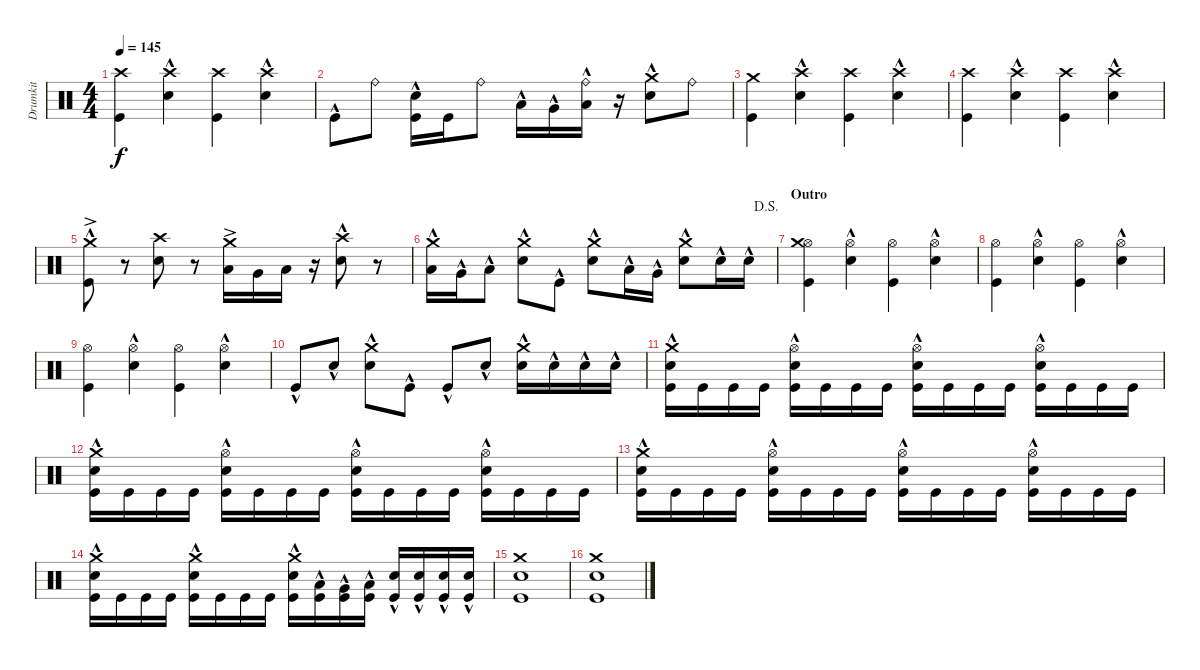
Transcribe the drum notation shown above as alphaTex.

\track ("Drumkit" "Drumkit") {instrument percussion}
\staff {score}
\articulation defaults
\ts (4 4)
\tempo 145
\clef neutral
\ks c
("Kick (hit)" "Crash high (hit)").4{dy f} ("Snare (hit) 2"{hac} "Crash high (hit)").4 ("Kick (hit)" "Crash high (hit)").4 ("Snare (hit) 2"{hac} "Crash high (hit)").4 |
"Kick (hit)"{hac}.8 "Ride (bell)".8 ("Kick (hit)" "Snare (hit) 2"{hac}).16 "Kick (hit)".16 "Ride (bell)".8 "Low Tom (hit)"{hac}.16 "Very Low Tom (hit)"{hac}.16 ("Low Floor Tom (hit)"{hac} "Ride (bell)"{hac}).16 r.16 ("Snare (hit) 2"{hac} "Crash medium (hit)").8 "Ride (bell)".8 |
("Kick (hit)" "Crash medium (hit)").4 ("Snare (hit) 2"{hac} "Crash high (hit)").4 ("Kick (hit)" "Crash high (hit)").4 ("Snare (hit) 2"{hac} "Crash high (hit)").4 |
("Kick (hit)" "Crash high (hit)").4 ("Snare (hit) 2"{hac} "Crash high (hit)").4 ("Kick (hit)" "Crash high (hit)").4 ("Snare (hit) 2"{hac} "Crash high (hit)").4 |
("Kick (hit)"{hac} "Crash medium (hit)"{ac}).8 r.8 ("Snare (hit) 2" "Crash high (hit)").8 r.8 ("Low Tom (hit)" "Crash medium (hit)"{ac}).16 "Very Low Tom (hit)".16 "Low Floor Tom (hit)".16 r.16 ("Snare (hit) 2"{hac} "Crash high (hit)").8 r.8 |
\jump dalsegno
("Low Tom (hit)"{hac} "Crash medium (hit)"{hac}).16 "Very Low Tom (hit)"{hac}.16 "Low Floor Tom (hit)"{hac}.8 ("Snare (hit) 2"{hac} "Crash medium (hit)"{hac}).8 "Kick (hit)"{hac}.8 ("Snare (hit) 2"{hac} "Crash medium (hit)"{hac}).8 "Low Tom (hit)"{hac}.16 "Very Low Tom (hit)"{hac}.16 ("Snare (hit) 2"{hac} "Crash medium (hit)"{hac}).8 "Snare (hit) 2"{hac}.16 "Snare (hit) 2"{hac}.16 |
\section ("" "Outro")
("Kick (hit)" "Hi-Hat (open)" "Crash medium (hit)").4 ("Snare (hit) 2"{hac} "Hi-Hat (open)").4 ("Kick (hit)" "Hi-Hat (open)").4 ("Snare (hit) 2"{hac} "Hi-Hat (open)").4 |
("Kick (hit)" "Hi-Hat (open)").4 ("Snare (hit) 2"{hac} "Hi-Hat (open)").4 ("Kick (hit)" "Hi-Hat (open)").4 ("Snare (hit) 2"{hac} "Hi-Hat (open)").4 |
("Kick (hit)" "Hi-Hat (open)").4 ("Snare (hit) 2"{hac} "Hi-Hat (open)").4 ("Kick (hit)" "Hi-Hat (open)").4 ("Snare (hit) 2"{hac} "Hi-Hat (open)").4 |
"Kick (hit)"{hac}.8 "Snare (hit) 2"{hac}.8 ("Snare (hit) 2"{hac} "Crash medium (hit)"{hac}).8 "Kick (hit)"{hac}.8 "Kick (hit)"{hac}.8 "Snare (hit) 2"{hac}.8 ("Snare (hit) 2"{hac} "Crash medium (hit)"{hac}).16 "Snare (hit) 2"{hac}.16 "Snare (hit) 2"{hac}.16 "Snare (hit) 2"{hac}.16 |
("Kick (hit)" "Snare (hit) 2"{hac} "Crash medium (hit)").16 "Kick (hit)".16 "Kick (hit)".16 "Kick (hit)".16 ("Kick (hit)" "Snare (hit) 2"{hac} "Hi-Hat (open)").16 "Kick (hit)".16 "Kick (hit)".16 "Kick (hit)".16 ("Kick (hit)" "Snare (hit) 2"{hac} "Hi-Hat (open)").16 "Kick (hit)".16 "Kick (hit)".16 "Kick (hit)".16 ("Kick (hit)" "Snare (hit) 2"{hac} "Hi-Hat (open)").16 "Kick (hit)".16 "Kick (hit)".16 "Kick (hit)".16 |
("Kick (hit)" "Snare (hit) 2"{hac} "Crash medium (hit)").16 "Kick (hit)".16 "Kick (hit)".16 "Kick (hit)".16 ("Kick (hit)" "Snare (hit) 2"{hac} "Hi-Hat (open)").16 "Kick (hit)".16 "Kick (hit)".16 "Kick (hit)".16 ("Kick (hit)" "Snare (hit) 2"{hac} "Hi-Hat (open)").16 "Kick (hit)".16 "Kick (hit)".16 "Kick (hit)".16 ("Kick (hit)" "Snare (hit) 2"{hac} "Hi-Hat (open)").16 "Kick (hit)".16 "Kick (hit)".16 "Kick (hit)".16 |
("Kick (hit)" "Snare (hit) 2"{hac} "Crash medium (hit)").16 "Kick (hit)".16 "Kick (hit)".16 "Kick (hit)".16 ("Kick (hit)" "Snare (hit) 2"{hac} "Hi-Hat (open)").16 "Kick (hit)".16 "Kick (hit)".16 "Kick (hit)".16 ("Kick (hit)" "Snare (hit) 2"{hac} "Hi-Hat (open)").16 "Kick (hit)".16 "Kick (hit)".16 "Kick (hit)".16 ("Kick (hit)" "Snare (hit) 2"{hac} "Hi-Hat (open)").16 "Kick (hit)".16 "Kick (hit)".16 "Kick (hit)".16 |
("Kick (hit)" "Snare (hit) 2"{hac} "Crash medium (hit)").16 "Kick (hit)".16 "Kick (hit)".16 "Kick (hit)".16 ("Snare (hit) 2"{hac} "Crash medium (hit)"{hac} "Kick (hit)").16 "Kick (hit)".16 "Kick (hit)".16 "Kick (hit)".16 ("Snare (hit) 2"{hac} "Kick (hit)" "Crash medium (hit)").16 ("Low Tom (hit)"{hac} "Kick (hit)").16 ("Very Low Tom (hit)"{hac} "Kick (hit)").16 ("Low Floor Tom (hit)"{hac} "Kick (hit)").16 ("Snare (hit) 2"{hac} "Kick (hit)").16 ("Snare (hit) 2"{hac} "Kick (hit)").16 ("Snare (hit) 2"{hac} "Kick (hit)").16 ("Snare (hit) 2"{hac} "Kick (hit)").16 |
("Kick (hit)" "Snare (hit) 2" "Crash medium (hit)").1 |
("Kick (hit)" "Snare (hit) 2" "Crash medium (hit)").1
